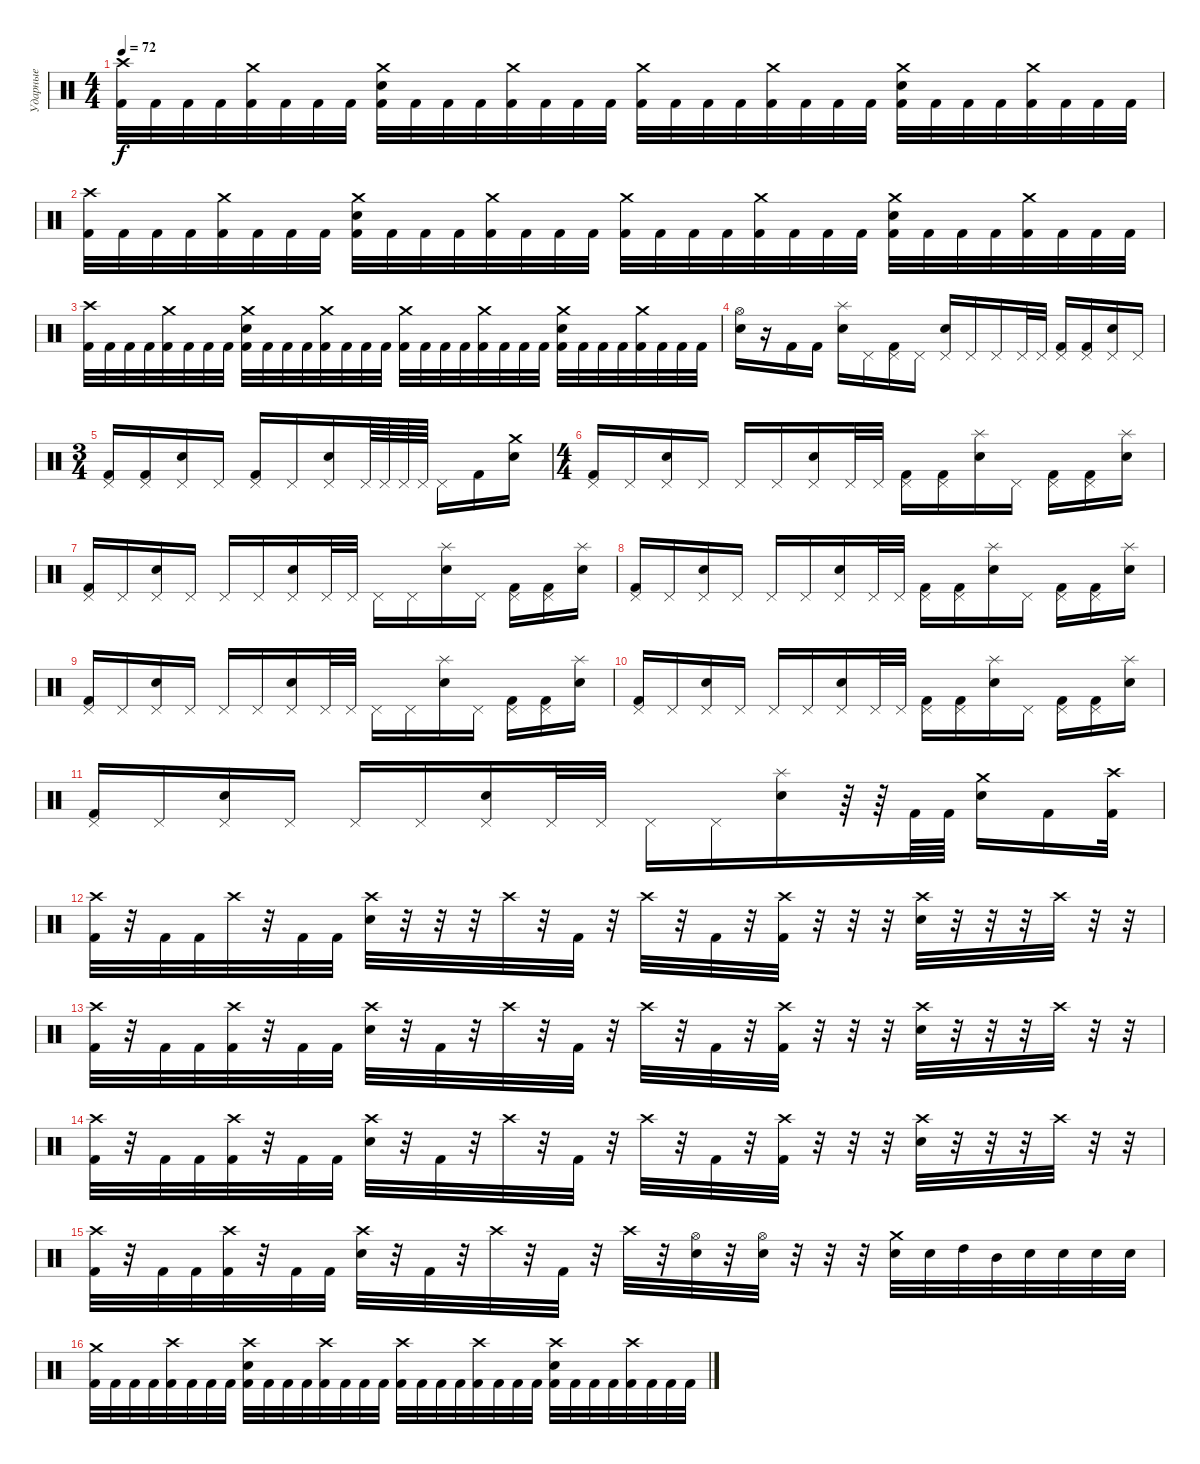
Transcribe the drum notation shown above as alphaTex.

\track ("Ударные" "Ударные") {instrument percussion}
\staff {score}
\articulation defaults
\ts (4 4)
\tempo 72
\clef neutral
\ks c
("Crash high (hit)" "Kick (hit) 2").32{dy f} "Kick (hit) 2".32 "Kick (hit) 2".32 "Kick (hit) 2".32 ("Crash medium (hit)" "Kick (hit) 2").32 "Kick (hit) 2".32 "Kick (hit) 2".32 "Kick (hit) 2".32 ("Crash medium (hit)" "Kick (hit) 2" "Electric Snare (hit)").32 "Kick (hit) 2".32 "Kick (hit) 2".32 "Kick (hit) 2".32 ("Crash medium (hit)" "Kick (hit) 2").32 "Kick (hit) 2".32 "Kick (hit) 2".32 "Kick (hit) 2".32 ("Crash medium (hit)" "Kick (hit) 2").32 "Kick (hit) 2".32 "Kick (hit) 2".32 "Kick (hit) 2".32 ("Crash medium (hit)" "Kick (hit) 2").32 "Kick (hit) 2".32 "Kick (hit) 2".32 "Kick (hit) 2".32 ("Crash medium (hit)" "Kick (hit) 2" "Electric Snare (hit)").32 "Kick (hit) 2".32 "Kick (hit) 2".32 "Kick (hit) 2".32 ("Crash medium (hit)" "Kick (hit) 2").32 "Kick (hit) 2".32 "Kick (hit) 2".32 "Kick (hit) 2".32 |
("Crash high (hit)" "Kick (hit) 2").32 "Kick (hit) 2".32 "Kick (hit) 2".32 "Kick (hit) 2".32 ("Crash medium (hit)" "Kick (hit) 2").32 "Kick (hit) 2".32 "Kick (hit) 2".32 "Kick (hit) 2".32 ("Crash medium (hit)" "Kick (hit) 2" "Electric Snare (hit)").32 "Kick (hit) 2".32 "Kick (hit) 2".32 "Kick (hit) 2".32 ("Crash medium (hit)" "Kick (hit) 2").32 "Kick (hit) 2".32 "Kick (hit) 2".32 "Kick (hit) 2".32 ("Crash medium (hit)" "Kick (hit) 2").32 "Kick (hit) 2".32 "Kick (hit) 2".32 "Kick (hit) 2".32 ("Crash medium (hit)" "Kick (hit) 2").32 "Kick (hit) 2".32 "Kick (hit) 2".32 "Kick (hit) 2".32 ("Crash medium (hit)" "Kick (hit) 2" "Electric Snare (hit)").32 "Kick (hit) 2".32 "Kick (hit) 2".32 "Kick (hit) 2".32 ("Crash medium (hit)" "Kick (hit) 2").32 "Kick (hit) 2".32 "Kick (hit) 2".32 "Kick (hit) 2".32 |
("Crash high (hit)" "Kick (hit) 2").32 "Kick (hit) 2".32 "Kick (hit) 2".32 "Kick (hit) 2".32 ("Crash medium (hit)" "Kick (hit) 2").32 "Kick (hit) 2".32 "Kick (hit) 2".32 "Kick (hit) 2".32 ("Crash medium (hit)" "Kick (hit) 2" "Electric Snare (hit)").32 "Kick (hit) 2".32 "Kick (hit) 2".32 "Kick (hit) 2".32 ("Crash medium (hit)" "Kick (hit) 2").32 "Kick (hit) 2".32 "Kick (hit) 2".32 "Kick (hit) 2".32 ("Crash medium (hit)" "Kick (hit) 2").32 "Kick (hit) 2".32 "Kick (hit) 2".32 "Kick (hit) 2".32 ("Crash medium (hit)" "Kick (hit) 2").32 "Kick (hit) 2".32 "Kick (hit) 2".32 "Kick (hit) 2".32 ("Crash medium (hit)" "Kick (hit) 2" "Electric Snare (hit)").32 "Kick (hit) 2".32 "Kick (hit) 2".32 "Kick (hit) 2".32 ("Crash medium (hit)" "Kick (hit) 2").32 "Kick (hit) 2".32 "Kick (hit) 2".32 "Kick (hit) 2".32 |
("Hi-Hat (open)" "Electric Snare (hit)").16 r.16 "Kick (hit) 2".16 "Kick (hit) 2".16 ("Splash (hit)" "Electric Snare (hit)").16 "Pedal Hi-Hat (hit)".16 ("Pedal Hi-Hat (hit)" "Kick (hit) 2").16 "Pedal Hi-Hat (hit)".16 ("Pedal Hi-Hat (hit)" "Electric Snare (hit)").16 "Pedal Hi-Hat (hit)".16 "Pedal Hi-Hat (hit)".16 "Pedal Hi-Hat (hit)".32 "Pedal Hi-Hat (hit)".32 ("Pedal Hi-Hat (hit)" "Kick (hit) 2").16 ("Pedal Hi-Hat (hit)" "Kick (hit) 2").16 ("Pedal Hi-Hat (hit)" "Electric Snare (hit)").16 "Pedal Hi-Hat (hit)".16 |
\ts (3 4)
("Pedal Hi-Hat (hit)" "Kick (hit) 2").16 ("Pedal Hi-Hat (hit)" "Kick (hit) 2").16 ("Pedal Hi-Hat (hit)" "Electric Snare (hit)").16 "Pedal Hi-Hat (hit)".16 ("Pedal Hi-Hat (hit)" "Kick (hit) 2").16 "Pedal Hi-Hat (hit)".16 ("Pedal Hi-Hat (hit)" "Electric Snare (hit)").16 "Pedal Hi-Hat (hit)".64 "Pedal Hi-Hat (hit)".64 "Pedal Hi-Hat (hit)".64 "Pedal Hi-Hat (hit)".64 "Pedal Hi-Hat (hit)".16 "Kick (hit) 2".16 ("Crash medium (hit)" "Electric Snare (hit)").16 |
\ts (4 4)
("Pedal Hi-Hat (hit)" "Kick (hit) 2").16 "Pedal Hi-Hat (hit)".16 ("Pedal Hi-Hat (hit)" "Electric Snare (hit)").16 "Pedal Hi-Hat (hit)".16 "Pedal Hi-Hat (hit)".16 "Pedal Hi-Hat (hit)".16 ("Pedal Hi-Hat (hit)" "Electric Snare (hit)").16 "Pedal Hi-Hat (hit)".32 "Pedal Hi-Hat (hit)".32 ("Pedal Hi-Hat (hit)" "Kick (hit) 2").16 ("Pedal Hi-Hat (hit)" "Kick (hit) 2").16 ("Splash (hit)" "Electric Snare (hit)").16 "Pedal Hi-Hat (hit)".16 ("Pedal Hi-Hat (hit)" "Kick (hit) 2").16 ("Pedal Hi-Hat (hit)" "Kick (hit) 2").16 ("Splash (hit)" "Electric Snare (hit)").16 |
("Pedal Hi-Hat (hit)" "Kick (hit) 2").16 "Pedal Hi-Hat (hit)".16 ("Pedal Hi-Hat (hit)" "Electric Snare (hit)").16 "Pedal Hi-Hat (hit)".16 "Pedal Hi-Hat (hit)".16 "Pedal Hi-Hat (hit)".16 ("Pedal Hi-Hat (hit)" "Electric Snare (hit)").16 "Pedal Hi-Hat (hit)".32 "Pedal Hi-Hat (hit)".32 "Pedal Hi-Hat (hit)".16 "Pedal Hi-Hat (hit)".16 ("Splash (hit)" "Electric Snare (hit)").16 "Pedal Hi-Hat (hit)".16 ("Pedal Hi-Hat (hit)" "Kick (hit) 2").16 ("Pedal Hi-Hat (hit)" "Kick (hit) 2").16 ("Splash (hit)" "Electric Snare (hit)").16 |
("Pedal Hi-Hat (hit)" "Kick (hit) 2").16 "Pedal Hi-Hat (hit)".16 ("Pedal Hi-Hat (hit)" "Electric Snare (hit)").16 "Pedal Hi-Hat (hit)".16 "Pedal Hi-Hat (hit)".16 "Pedal Hi-Hat (hit)".16 ("Pedal Hi-Hat (hit)" "Electric Snare (hit)").16 "Pedal Hi-Hat (hit)".32 "Pedal Hi-Hat (hit)".32 ("Pedal Hi-Hat (hit)" "Kick (hit) 2").16 ("Pedal Hi-Hat (hit)" "Kick (hit) 2").16 ("Splash (hit)" "Electric Snare (hit)").16 "Pedal Hi-Hat (hit)".16 ("Pedal Hi-Hat (hit)" "Kick (hit) 2").16 ("Pedal Hi-Hat (hit)" "Kick (hit) 2").16 ("Splash (hit)" "Electric Snare (hit)").16 |
("Pedal Hi-Hat (hit)" "Kick (hit) 2").16 "Pedal Hi-Hat (hit)".16 ("Pedal Hi-Hat (hit)" "Electric Snare (hit)").16 "Pedal Hi-Hat (hit)".16 "Pedal Hi-Hat (hit)".16 "Pedal Hi-Hat (hit)".16 ("Pedal Hi-Hat (hit)" "Electric Snare (hit)").16 "Pedal Hi-Hat (hit)".32 "Pedal Hi-Hat (hit)".32 "Pedal Hi-Hat (hit)".16 "Pedal Hi-Hat (hit)".16 ("Splash (hit)" "Electric Snare (hit)").16 "Pedal Hi-Hat (hit)".16 ("Pedal Hi-Hat (hit)" "Kick (hit) 2").16 ("Pedal Hi-Hat (hit)" "Kick (hit) 2").16 ("Splash (hit)" "Electric Snare (hit)").16 |
("Pedal Hi-Hat (hit)" "Kick (hit) 2").16 "Pedal Hi-Hat (hit)".16 ("Pedal Hi-Hat (hit)" "Electric Snare (hit)").16 "Pedal Hi-Hat (hit)".16 "Pedal Hi-Hat (hit)".16 "Pedal Hi-Hat (hit)".16 ("Pedal Hi-Hat (hit)" "Electric Snare (hit)").16 "Pedal Hi-Hat (hit)".32 "Pedal Hi-Hat (hit)".32 ("Pedal Hi-Hat (hit)" "Kick (hit) 2").16 ("Pedal Hi-Hat (hit)" "Kick (hit) 2").16 ("Splash (hit)" "Electric Snare (hit)").16 "Pedal Hi-Hat (hit)".16 ("Pedal Hi-Hat (hit)" "Kick (hit) 2").16 ("Pedal Hi-Hat (hit)" "Kick (hit) 2").16 ("Splash (hit)" "Electric Snare (hit)").16 |
("Pedal Hi-Hat (hit)" "Kick (hit) 2").16 "Pedal Hi-Hat (hit)".16 ("Pedal Hi-Hat (hit)" "Electric Snare (hit)").16 "Pedal Hi-Hat (hit)".16 "Pedal Hi-Hat (hit)".16 "Pedal Hi-Hat (hit)".16 ("Pedal Hi-Hat (hit)" "Electric Snare (hit)").16 "Pedal Hi-Hat (hit)".32 "Pedal Hi-Hat (hit)".32 "Pedal Hi-Hat (hit)".16 "Pedal Hi-Hat (hit)".16 ("Splash (hit)" "Electric Snare (hit)").16 r.64 r.64 "Kick (hit) 2".64 "Kick (hit) 2".64 ("Crash medium (hit)" "Electric Snare (hit)").16 "Kick (hit) 2".16 ("Crash high (hit)" "Kick (hit) 2").32 |
("Crash high (hit)" "Kick (hit) 2").32 r.32 "Kick (hit) 2".32 "Kick (hit) 2".32 "Crash high (hit)".32 r.32 "Kick (hit) 2".32 "Kick (hit) 2".32 ("Crash high (hit)" "Electric Snare (hit)").32 r.32 r.32 r.32 "Crash high (hit)".32 r.32 "Kick (hit) 2".32 r.32 "Crash high (hit)".32 r.32 "Kick (hit) 2".32 r.32 ("Crash high (hit)" "Kick (hit) 2").32 r.32 r.32 r.32 ("Crash high (hit)" "Electric Snare (hit)").32 r.32 r.32 r.32 "Crash high (hit)".32 r.32 r.32 |
("Crash high (hit)" "Kick (hit) 2").32 r.32 "Kick (hit) 2".32 "Kick (hit) 2".32 ("Crash high (hit)" "Kick (hit) 2").32 r.32 "Kick (hit) 2".32 "Kick (hit) 2".32 ("Crash high (hit)" "Electric Snare (hit)").32 r.32 "Kick (hit) 2".32 r.32 "Crash high (hit)".32 r.32 "Kick (hit) 2".32 r.32 "Crash high (hit)".32 r.32 "Kick (hit) 2".32 r.32 ("Crash high (hit)" "Kick (hit) 2").32 r.32 r.32 r.32 ("Crash high (hit)" "Electric Snare (hit)").32 r.32 r.32 r.32 "Crash high (hit)".32 r.32 r.32 |
("Crash high (hit)" "Kick (hit) 2").32 r.32 "Kick (hit) 2".32 "Kick (hit) 2".32 ("Crash high (hit)" "Kick (hit) 2").32 r.32 "Kick (hit) 2".32 "Kick (hit) 2".32 ("Crash high (hit)" "Electric Snare (hit)").32 r.32 "Kick (hit) 2".32 r.32 "Crash high (hit)".32 r.32 "Kick (hit) 2".32 r.32 "Crash high (hit)".32 r.32 "Kick (hit) 2".32 r.32 ("Crash high (hit)" "Kick (hit) 2").32 r.32 r.32 r.32 ("Crash high (hit)" "Electric Snare (hit)").32 r.32 r.32 r.32 "Crash high (hit)".32 r.32 r.32 |
("Crash high (hit)" "Kick (hit) 2").32 r.32 "Kick (hit) 2".32 "Kick (hit) 2".32 ("Crash high (hit)" "Kick (hit) 2").32 r.32 "Kick (hit) 2".32 "Kick (hit) 2".32 ("Crash high (hit)" "Electric Snare (hit)").32 r.32 "Kick (hit) 2".32 r.32 "Crash high (hit)".32 r.32 "Kick (hit) 2".32 r.32 "Crash high (hit)".32 r.32 ("Hi-Hat (open)" "Electric Snare (hit)").32 r.32 ("Hi-Hat (open)" "Electric Snare (hit)").32 r.32 r.32 r.32 ("Crash medium (hit)" "Electric Snare (hit)").32 "Electric Snare (hit)".32 "High Tom (hit)".32 "Mid Tom (hit)".32 "Electric Snare (hit)".32 "Electric Snare (hit)".32 "Electric Snare (hit)".32 "Electric Snare (hit)".32 |
("Crash medium (hit)" "Kick (hit) 2").32 "Kick (hit) 2".32 "Kick (hit) 2".32 "Kick (hit) 2".32 ("Crash high (hit)" "Kick (hit) 2").32 "Kick (hit) 2".32 "Kick (hit) 2".32 "Kick (hit) 2".32 ("Crash high (hit)" "Kick (hit) 2" "Electric Snare (hit)").32 "Kick (hit) 2".32 "Kick (hit) 2".32 "Kick (hit) 2".32 ("Crash high (hit)" "Kick (hit) 2").32 "Kick (hit) 2".32 "Kick (hit) 2".32 "Kick (hit) 2".32 ("Crash high (hit)" "Kick (hit) 2").32 "Kick (hit) 2".32 "Kick (hit) 2".32 "Kick (hit) 2".32 ("Crash high (hit)" "Kick (hit) 2").32 "Kick (hit) 2".32 "Kick (hit) 2".32 "Kick (hit) 2".32 ("Crash high (hit)" "Kick (hit) 2" "Electric Snare (hit)").32 "Kick (hit) 2".32 "Kick (hit) 2".32 "Kick (hit) 2".32 ("Crash high (hit)" "Kick (hit) 2").32 "Kick (hit) 2".32 "Kick (hit) 2".32 "Kick (hit) 2".32
